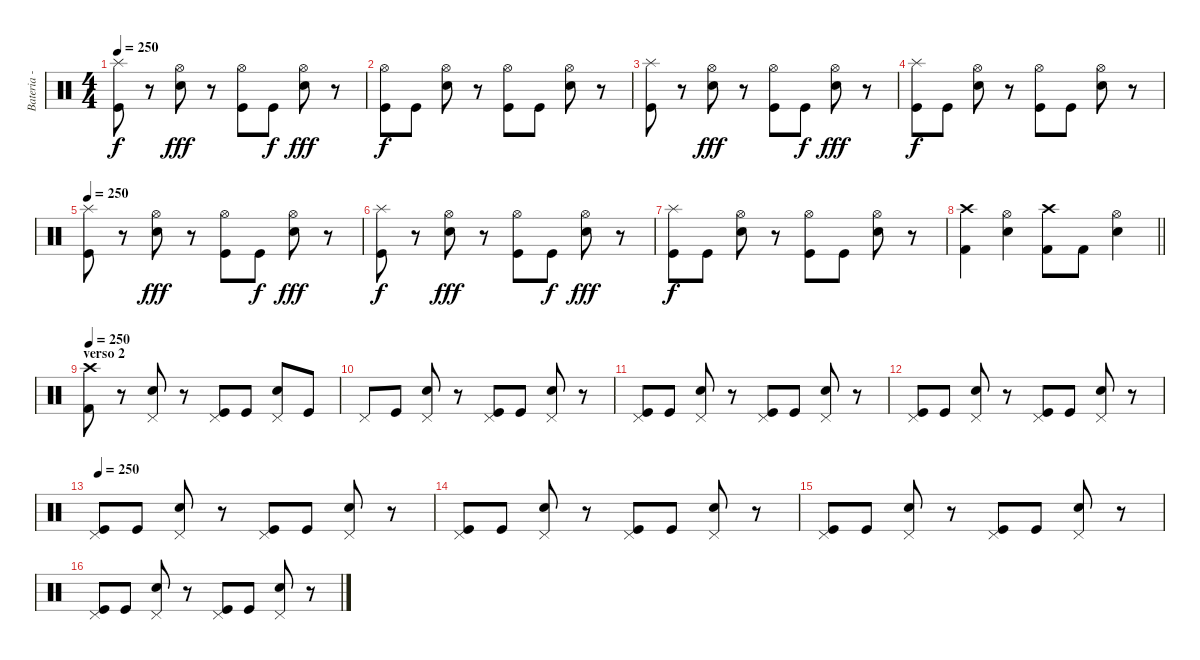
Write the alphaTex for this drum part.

\track ("Bateria - Japinha" "Bateria - ") {instrument percussion}
\staff {score}
\articulation defaults
\ts (4 4)
\tempo 250
\clef neutral
\ks c
("Kick (hit)" "Splash (hit)").8{dy f} r.8 ("Snare (hit) 2" "Hi-Hat (open)").8{dy fff} r.8 ("Kick (hit)" "Hi-Hat (open)").8 "Kick (hit)".8{dy f} ("Snare (hit) 2" "Hi-Hat (open)").8{dy fff} r.8 |
("Kick (hit)" "Hi-Hat (open)").8{dy f} "Kick (hit)".8 ("Snare (hit) 2" "Hi-Hat (open)").8 r.8 ("Kick (hit)" "Hi-Hat (open)").8 "Kick (hit)".8 ("Snare (hit) 2" "Hi-Hat (open)").8 r.8 |
("Kick (hit)" "Splash (hit)").8 r.8 ("Snare (hit) 2" "Hi-Hat (open)").8{dy fff} r.8 ("Kick (hit)" "Hi-Hat (open)").8 "Kick (hit)".8{dy f} ("Snare (hit) 2" "Hi-Hat (open)").8{dy fff} r.8 |
("Kick (hit)" "Splash (hit)").8{dy f} "Kick (hit)".8 ("Snare (hit) 2" "Hi-Hat (open)").8 r.8 ("Kick (hit)" "Hi-Hat (open)").8 "Kick (hit)".8 ("Snare (hit) 2" "Hi-Hat (open)").8 r.8 |
\tempo 250
("Kick (hit)" "Splash (hit)").8 r.8 ("Snare (hit) 2" "Hi-Hat (open)").8{dy fff} r.8 ("Kick (hit)" "Hi-Hat (open)").8 "Kick (hit)".8{dy f} ("Snare (hit) 2" "Hi-Hat (open)").8{dy fff} r.8 |
("Kick (hit)" "Splash (hit)").8{dy f} r.8 ("Snare (hit) 2" "Hi-Hat (open)").8{dy fff} r.8 ("Kick (hit)" "Hi-Hat (open)").8 "Kick (hit)".8{dy f} ("Snare (hit) 2" "Hi-Hat (open)").8{dy fff} r.8 |
("Kick (hit)" "Splash (hit)").8{dy f} "Kick (hit)".8 ("Snare (hit) 2" "Hi-Hat (open)").8 r.8 ("Kick (hit)" "Hi-Hat (open)").8 "Kick (hit)".8 ("Snare (hit) 2" "Hi-Hat (open)").8 r.8 |
\barLineRight lightlight
("Kick (hit) 2" "Crash high (hit)").4 ("Snare (hit) 2" "Hi-Hat (open)").4 ("Kick (hit) 2" "Crash high (hit)").8 "Kick (hit) 2".8 ("Snare (hit) 2" "Hi-Hat (open)").4 |
\section ("" "verso 2")
\tempo 250
("Kick (hit) 2" "Crash high (hit)").8 r.8 ("Snare (hit) 2" "Pedal Hi-Hat (hit)").8 r.8 ("Kick (hit)" "Pedal Hi-Hat (hit)").8 "Kick (hit)".8 ("Snare (hit) 2" "Pedal Hi-Hat (hit)").8 "Kick (hit)".8 |
"Pedal Hi-Hat (hit)".8 "Kick (hit)".8 ("Snare (hit) 2" "Pedal Hi-Hat (hit)").8 r.8 ("Kick (hit)" "Pedal Hi-Hat (hit)").8 "Kick (hit)".8 ("Snare (hit) 2" "Pedal Hi-Hat (hit)").8 r.8 |
("Kick (hit)" "Pedal Hi-Hat (hit)").8 "Kick (hit)".8 ("Snare (hit) 2" "Pedal Hi-Hat (hit)").8 r.8 ("Kick (hit)" "Pedal Hi-Hat (hit)").8 "Kick (hit)".8 ("Snare (hit) 2" "Pedal Hi-Hat (hit)").8 r.8 |
("Kick (hit)" "Pedal Hi-Hat (hit)").8 "Kick (hit)".8 ("Snare (hit) 2" "Pedal Hi-Hat (hit)").8 r.8 ("Kick (hit)" "Pedal Hi-Hat (hit)").8 "Kick (hit)".8 ("Snare (hit) 2" "Pedal Hi-Hat (hit)").8 r.8 |
\tempo 250
("Kick (hit)" "Pedal Hi-Hat (hit)").8 "Kick (hit)".8 ("Snare (hit) 2" "Pedal Hi-Hat (hit)").8 r.8 ("Kick (hit)" "Pedal Hi-Hat (hit)").8 "Kick (hit)".8 ("Snare (hit) 2" "Pedal Hi-Hat (hit)").8 r.8 |
("Kick (hit)" "Pedal Hi-Hat (hit)").8 "Kick (hit)".8 ("Snare (hit) 2" "Pedal Hi-Hat (hit)").8 r.8 ("Kick (hit)" "Pedal Hi-Hat (hit)").8 "Kick (hit)".8 ("Snare (hit) 2" "Pedal Hi-Hat (hit)").8 r.8 |
("Kick (hit)" "Pedal Hi-Hat (hit)").8 "Kick (hit)".8 ("Snare (hit) 2" "Pedal Hi-Hat (hit)").8 r.8 ("Kick (hit)" "Pedal Hi-Hat (hit)").8 "Kick (hit)".8 ("Snare (hit) 2" "Pedal Hi-Hat (hit)").8 r.8 |
("Kick (hit)" "Pedal Hi-Hat (hit)").8 "Kick (hit)".8 ("Snare (hit) 2" "Pedal Hi-Hat (hit)").8 r.8 ("Kick (hit)" "Pedal Hi-Hat (hit)").8 "Kick (hit)".8 ("Snare (hit) 2" "Pedal Hi-Hat (hit)").8 r.8
